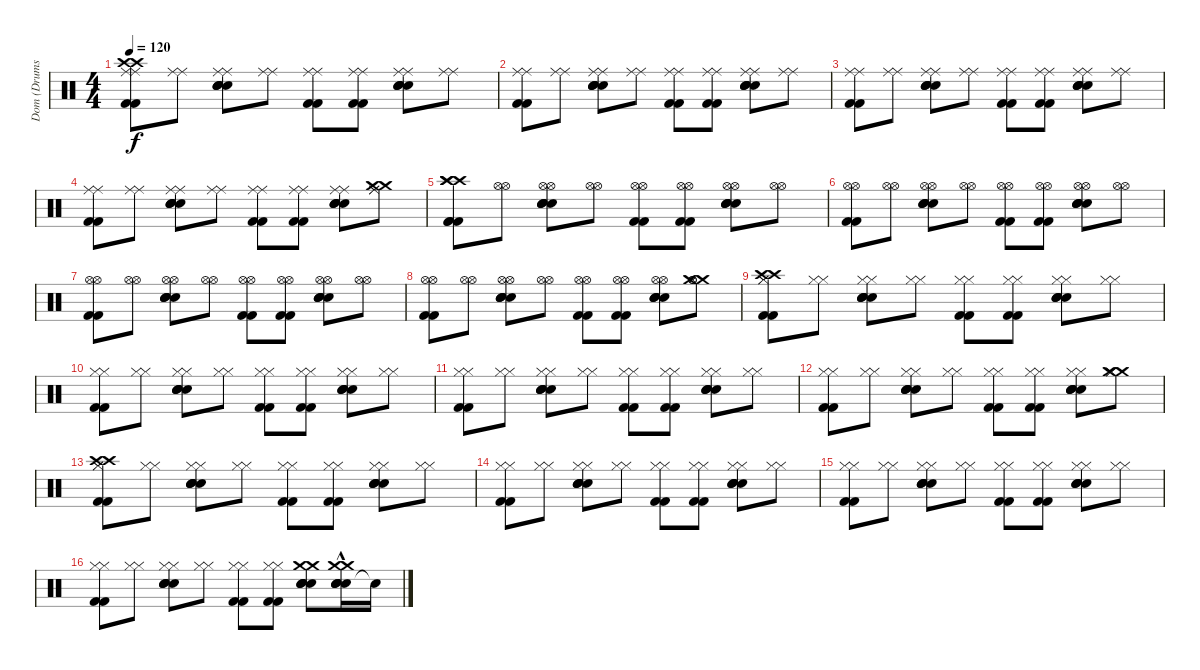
\track ("Dom (Drums)" "Dom (Drums") {instrument percussion}
\staff {score}
\articulation defaults
\ts (4 4)
\tempo 120
\clef neutral
\ks c
("Crash high (hit)" "Kick (hit) 2" "Kick (hit) 2" "Crash high (hit)" "Ride (middle)" "Ride (middle)").8{dy f} ("Ride (middle)" "Ride (middle)").8 ("Snare (hit) 2" "Snare (hit) 2" "Electric Snare (hit)" "Electric Snare (hit)" "Ride (middle)" "Ride (middle)").8 ("Ride (middle)" "Ride (middle)").8 ("Kick (hit) 2" "Kick (hit) 2" "Ride (middle)" "Ride (middle)").8 ("Kick (hit) 2" "Kick (hit) 2" "Ride (middle)" "Ride (middle)").8 ("Snare (hit) 2" "Snare (hit) 2" "Electric Snare (hit)" "Electric Snare (hit)" "Ride (middle)" "Ride (middle)").8 ("Ride (middle)" "Ride (middle)").8 |
("Kick (hit) 2" "Kick (hit) 2" "Ride (middle)" "Ride (middle)").8 ("Ride (middle)" "Ride (middle)").8 ("Snare (hit) 2" "Snare (hit) 2" "Electric Snare (hit)" "Electric Snare (hit)" "Ride (middle)" "Ride (middle)").8 ("Ride (middle)" "Ride (middle)").8 ("Kick (hit) 2" "Kick (hit) 2" "Ride (middle)" "Ride (middle)").8 ("Kick (hit) 2" "Kick (hit) 2" "Ride (middle)" "Ride (middle)").8 ("Snare (hit) 2" "Snare (hit) 2" "Electric Snare (hit)" "Electric Snare (hit)" "Ride (middle)" "Ride (middle)").8 ("Ride (middle)" "Ride (middle)").8 |
("Kick (hit) 2" "Kick (hit) 2" "Ride (middle)" "Ride (middle)").8 ("Ride (middle)" "Ride (middle)").8 ("Snare (hit) 2" "Snare (hit) 2" "Electric Snare (hit)" "Electric Snare (hit)" "Ride (middle)" "Ride (middle)").8 ("Ride (middle)" "Ride (middle)").8 ("Kick (hit) 2" "Kick (hit) 2" "Ride (middle)" "Ride (middle)").8 ("Kick (hit) 2" "Kick (hit) 2" "Ride (middle)" "Ride (middle)").8 ("Snare (hit) 2" "Snare (hit) 2" "Electric Snare (hit)" "Electric Snare (hit)" "Ride (middle)" "Ride (middle)").8 ("Ride (middle)" "Ride (middle)").8 |
("Kick (hit) 2" "Kick (hit) 2" "Ride (middle)" "Ride (middle)").8 ("Ride (middle)" "Ride (middle)").8 ("Snare (hit) 2" "Snare (hit) 2" "Electric Snare (hit)" "Electric Snare (hit)" "Ride (middle)" "Ride (middle)").8 ("Ride (middle)" "Ride (middle)").8 ("Kick (hit) 2" "Kick (hit) 2" "Ride (middle)" "Ride (middle)").8 ("Kick (hit) 2" "Kick (hit) 2" "Ride (middle)" "Ride (middle)").8 ("Snare (hit) 2" "Snare (hit) 2" "Electric Snare (hit)" "Electric Snare (hit)" "Ride (middle)" "Ride (middle)").8 ("Crash medium (hit)" "Crash medium (hit)" "Ride (middle)" "Ride (middle)").8 |
("Crash high (hit)" "Crash high (hit)" "Crash high (hit)" "Kick (hit) 2" "Kick (hit) 2" "Kick (hit) 2").8 ("Hi-Hat (open)" "Hi-Hat (open)").8 ("Hi-Hat (open)" "Snare (hit) 2" "Snare (hit) 2" "Electric Snare (hit)" "Electric Snare (hit)" "Hi-Hat (open)").8 ("Hi-Hat (open)" "Hi-Hat (open)").8 ("Kick (hit) 2" "Kick (hit) 2" "Hi-Hat (open)" "Hi-Hat (open)").8 ("Kick (hit) 2" "Kick (hit) 2" "Hi-Hat (open)" "Hi-Hat (open)").8 ("Electric Snare (hit)" "Electric Snare (hit)" "Snare (hit) 2" "Snare (hit) 2" "Hi-Hat (open)" "Hi-Hat (open)").8 ("Hi-Hat (open)" "Hi-Hat (open)").8 |
("Kick (hit) 2" "Kick (hit) 2" "Hi-Hat (open)" "Hi-Hat (open)").8 ("Hi-Hat (open)" "Hi-Hat (open)").8 ("Snare (hit) 2" "Snare (hit) 2" "Electric Snare (hit)" "Electric Snare (hit)" "Hi-Hat (open)" "Hi-Hat (open)").8 ("Hi-Hat (open)" "Hi-Hat (open)").8 ("Kick (hit) 2" "Kick (hit) 2" "Hi-Hat (open)" "Hi-Hat (open)").8 ("Kick (hit) 2" "Kick (hit) 2" "Hi-Hat (open)" "Hi-Hat (open)").8 ("Electric Snare (hit)" "Electric Snare (hit)" "Snare (hit) 2" "Snare (hit) 2" "Hi-Hat (open)" "Hi-Hat (open)").8 ("Hi-Hat (open)" "Hi-Hat (open)").8 |
("Kick (hit) 2" "Kick (hit) 2" "Hi-Hat (open)" "Hi-Hat (open)").8 ("Hi-Hat (open)" "Hi-Hat (open)").8 ("Snare (hit) 2" "Snare (hit) 2" "Electric Snare (hit)" "Electric Snare (hit)" "Hi-Hat (open)" "Hi-Hat (open)").8 ("Hi-Hat (open)" "Hi-Hat (open)").8 ("Kick (hit) 2" "Kick (hit) 2" "Hi-Hat (open)" "Hi-Hat (open)").8 ("Kick (hit) 2" "Kick (hit) 2" "Hi-Hat (open)" "Hi-Hat (open)").8 ("Electric Snare (hit)" "Electric Snare (hit)" "Snare (hit) 2" "Snare (hit) 2" "Hi-Hat (open)" "Hi-Hat (open)").8 ("Hi-Hat (open)" "Hi-Hat (open)").8 |
("Kick (hit) 2" "Kick (hit) 2" "Hi-Hat (open)" "Hi-Hat (open)").8 ("Hi-Hat (open)" "Hi-Hat (open)").8 ("Snare (hit) 2" "Snare (hit) 2" "Electric Snare (hit)" "Electric Snare (hit)" "Hi-Hat (open)" "Hi-Hat (open)").8 ("Hi-Hat (open)" "Hi-Hat (open)").8 ("Kick (hit) 2" "Kick (hit) 2" "Hi-Hat (open)" "Hi-Hat (open)").8 ("Kick (hit) 2" "Kick (hit) 2" "Hi-Hat (open)" "Hi-Hat (open)").8 ("Electric Snare (hit)" "Electric Snare (hit)" "Snare (hit) 2" "Snare (hit) 2" "Hi-Hat (open)" "Hi-Hat (open)").8 ("Crash medium (hit)" "Crash medium (hit)" "Hi-Hat (open)" "Hi-Hat (open)").8 |
("Crash high (hit)" "Crash high (hit)" "Kick (hit) 2" "Kick (hit) 2" "Hi-Hat (closed)" "Hi-Hat (closed)").8 ("Hi-Hat (closed)" "Hi-Hat (closed)").8 ("Snare (hit) 2" "Snare (hit) 2" "Electric Snare (hit)" "Electric Snare (hit)" "Hi-Hat (closed)" "Hi-Hat (closed)").8 ("Hi-Hat (closed)" "Hi-Hat (closed)").8 ("Kick (hit) 2" "Kick (hit) 2" "Hi-Hat (closed)" "Hi-Hat (closed)").8 ("Kick (hit) 2" "Kick (hit) 2" "Hi-Hat (closed)" "Hi-Hat (closed)").8 ("Snare (hit) 2" "Snare (hit) 2" "Electric Snare (hit)" "Electric Snare (hit)" "Hi-Hat (closed)" "Hi-Hat (closed)").8 ("Hi-Hat (closed)" "Hi-Hat (closed)").8 |
("Kick (hit) 2" "Kick (hit) 2" "Hi-Hat (closed)" "Hi-Hat (closed)").8 ("Hi-Hat (closed)" "Hi-Hat (closed)").8 ("Snare (hit) 2" "Snare (hit) 2" "Electric Snare (hit)" "Electric Snare (hit)" "Hi-Hat (closed)" "Hi-Hat (closed)").8 ("Hi-Hat (closed)" "Hi-Hat (closed)").8 ("Kick (hit) 2" "Kick (hit) 2" "Hi-Hat (closed)" "Hi-Hat (closed)").8 ("Kick (hit) 2" "Kick (hit) 2" "Hi-Hat (closed)" "Hi-Hat (closed)").8 ("Snare (hit) 2" "Snare (hit) 2" "Electric Snare (hit)" "Electric Snare (hit)" "Hi-Hat (closed)" "Hi-Hat (closed)").8 ("Hi-Hat (closed)" "Hi-Hat (closed)").8 |
("Kick (hit) 2" "Kick (hit) 2" "Hi-Hat (closed)" "Hi-Hat (closed)").8 ("Hi-Hat (closed)" "Hi-Hat (closed)").8 ("Snare (hit) 2" "Snare (hit) 2" "Electric Snare (hit)" "Electric Snare (hit)" "Hi-Hat (closed)" "Hi-Hat (closed)").8 ("Hi-Hat (closed)" "Hi-Hat (closed)").8 ("Kick (hit) 2" "Kick (hit) 2" "Hi-Hat (closed)" "Hi-Hat (closed)").8 ("Kick (hit) 2" "Kick (hit) 2" "Hi-Hat (closed)" "Hi-Hat (closed)").8 ("Snare (hit) 2" "Snare (hit) 2" "Electric Snare (hit)" "Electric Snare (hit)" "Hi-Hat (closed)" "Hi-Hat (closed)").8 ("Hi-Hat (closed)" "Hi-Hat (closed)").8 |
("Kick (hit) 2" "Kick (hit) 2" "Hi-Hat (closed)" "Hi-Hat (closed)").8 ("Hi-Hat (closed)" "Hi-Hat (closed)").8 ("Snare (hit) 2" "Snare (hit) 2" "Electric Snare (hit)" "Electric Snare (hit)" "Hi-Hat (closed)" "Hi-Hat (closed)").8 ("Hi-Hat (closed)" "Hi-Hat (closed)").8 ("Kick (hit) 2" "Kick (hit) 2" "Hi-Hat (closed)" "Hi-Hat (closed)").8 ("Kick (hit) 2" "Kick (hit) 2" "Hi-Hat (closed)" "Hi-Hat (closed)").8 ("Snare (hit) 2" "Snare (hit) 2" "Electric Snare (hit)" "Electric Snare (hit)" "Hi-Hat (closed)" "Hi-Hat (closed)").8 ("Crash medium (hit)" "Crash medium (hit)" "Hi-Hat (closed)" "Hi-Hat (closed)").8 |
("Crash high (hit)" "Kick (hit) 2" "Kick (hit) 2" "Crash high (hit)" "Hi-Hat (closed)" "Hi-Hat (closed)").8 ("Hi-Hat (closed)" "Hi-Hat (closed)").8 ("Snare (hit) 2" "Snare (hit) 2" "Electric Snare (hit)" "Electric Snare (hit)" "Hi-Hat (closed)" "Hi-Hat (closed)").8 ("Hi-Hat (closed)" "Hi-Hat (closed)").8 ("Kick (hit) 2" "Kick (hit) 2" "Hi-Hat (closed)" "Hi-Hat (closed)").8 ("Kick (hit) 2" "Kick (hit) 2" "Hi-Hat (closed)" "Hi-Hat (closed)").8 ("Snare (hit) 2" "Snare (hit) 2" "Electric Snare (hit)" "Electric Snare (hit)" "Hi-Hat (closed)" "Hi-Hat (closed)").8 ("Hi-Hat (closed)" "Hi-Hat (closed)").8 |
("Kick (hit) 2" "Kick (hit) 2" "Hi-Hat (closed)" "Hi-Hat (closed)").8 ("Hi-Hat (closed)" "Hi-Hat (closed)").8 ("Snare (hit) 2" "Snare (hit) 2" "Electric Snare (hit)" "Electric Snare (hit)" "Hi-Hat (closed)" "Hi-Hat (closed)").8 ("Hi-Hat (closed)" "Hi-Hat (closed)").8 ("Kick (hit) 2" "Kick (hit) 2" "Hi-Hat (closed)" "Hi-Hat (closed)").8 ("Kick (hit) 2" "Kick (hit) 2" "Hi-Hat (closed)" "Hi-Hat (closed)").8 ("Snare (hit) 2" "Snare (hit) 2" "Electric Snare (hit)" "Electric Snare (hit)" "Hi-Hat (closed)" "Hi-Hat (closed)").8 ("Hi-Hat (closed)" "Hi-Hat (closed)").8 |
("Kick (hit) 2" "Kick (hit) 2" "Hi-Hat (closed)" "Hi-Hat (closed)").8 ("Hi-Hat (closed)" "Hi-Hat (closed)").8 ("Snare (hit) 2" "Snare (hit) 2" "Electric Snare (hit)" "Electric Snare (hit)" "Hi-Hat (closed)" "Hi-Hat (closed)").8 ("Hi-Hat (closed)" "Hi-Hat (closed)").8 ("Kick (hit) 2" "Kick (hit) 2" "Hi-Hat (closed)" "Hi-Hat (closed)").8 ("Kick (hit) 2" "Kick (hit) 2" "Hi-Hat (closed)" "Hi-Hat (closed)").8 ("Snare (hit) 2" "Snare (hit) 2" "Electric Snare (hit)" "Electric Snare (hit)" "Hi-Hat (closed)" "Hi-Hat (closed)").8 ("Hi-Hat (closed)" "Hi-Hat (closed)").8 |
("Kick (hit) 2" "Kick (hit) 2" "Hi-Hat (closed)" "Hi-Hat (closed)").8 ("Hi-Hat (closed)" "Hi-Hat (closed)").8 ("Snare (hit) 2" "Snare (hit) 2" "Electric Snare (hit)" "Electric Snare (hit)" "Hi-Hat (closed)" "Hi-Hat (closed)").8 ("Hi-Hat (closed)" "Hi-Hat (closed)").8 ("Kick (hit) 2" "Kick (hit) 2" "Hi-Hat (closed)" "Hi-Hat (closed)").8 ("Kick (hit) 2" "Kick (hit) 2" "Hi-Hat (closed)" "Hi-Hat (closed)").8 ("Snare (hit) 2" "Snare (hit) 2" "Electric Snare (hit)" "Electric Snare (hit)" "Crash medium (hit)" "Crash medium (hit)").8 ("Snare (hit) 2" "Snare (hit) 2" "Electric Snare (hit)" "Electric Snare (hit)" "Crash medium (hit)" "Crash medium (hit)"{hac}).16 "Snare (hit)"{t}.16
